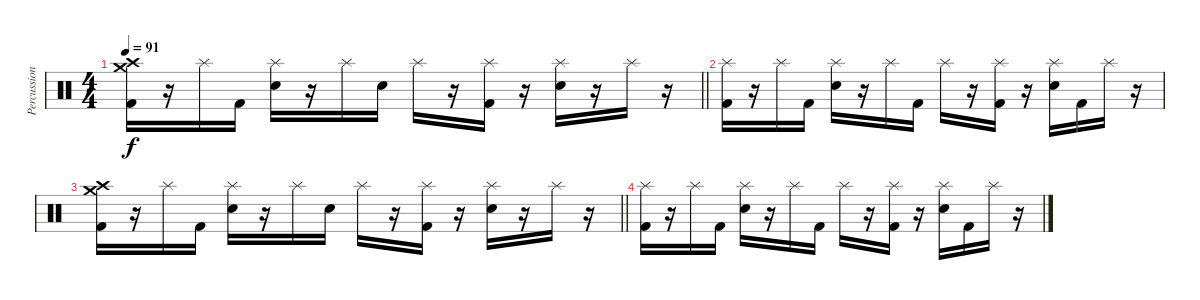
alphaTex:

\track ("Percussion" "Percussion") {instrument percussion}
\staff {score}
\articulation defaults
\ts (4 4)
\tempo 91
\clef neutral
\barLineRight lightlight
\ks c
("Crash high (hit)" "Crash medium (hit)" "Kick (hit) 2").16{dy f} r.16 "Splash (hit)".16 "Kick (hit) 2".16 ("Splash (hit)" "Electric Snare (hit)").16 r.16 "Splash (hit)".16 "Electric Snare (hit)".16 "Splash (hit)".16 r.16 ("Splash (hit)" "Kick (hit) 2").16 r.16 ("Splash (hit)" "Electric Snare (hit)").16 r.16 "Splash (hit)".16 r.16 |
("Splash (hit)" "Kick (hit) 2").16 r.16 "Splash (hit)".16 "Kick (hit) 2".16 ("Splash (hit)" "Electric Snare (hit)").16 r.16 "Splash (hit)".16 "Kick (hit) 2".16 "Splash (hit)".16 r.16 ("Splash (hit)" "Kick (hit) 2").16 r.16 ("Splash (hit)" "Electric Snare (hit)").16 "Kick (hit) 2".16 "Splash (hit)".16 r.16 |
\barLineRight lightlight
("Crash high (hit)" "Crash medium (hit)" "Kick (hit) 2").16 r.16 "Splash (hit)".16 "Kick (hit) 2".16 ("Splash (hit)" "Electric Snare (hit)").16 r.16 "Splash (hit)".16 "Electric Snare (hit)".16 "Splash (hit)".16 r.16 ("Splash (hit)" "Kick (hit) 2").16 r.16 ("Splash (hit)" "Electric Snare (hit)").16 r.16 "Splash (hit)".16 r.16 |
("Splash (hit)" "Kick (hit) 2").16 r.16 "Splash (hit)".16 "Kick (hit) 2".16 ("Splash (hit)" "Electric Snare (hit)").16 r.16 "Splash (hit)".16 "Kick (hit) 2".16 "Splash (hit)".16 r.16 ("Splash (hit)" "Kick (hit) 2").16 r.16 ("Splash (hit)" "Electric Snare (hit)").16 "Kick (hit) 2".16 "Splash (hit)".16 r.16
